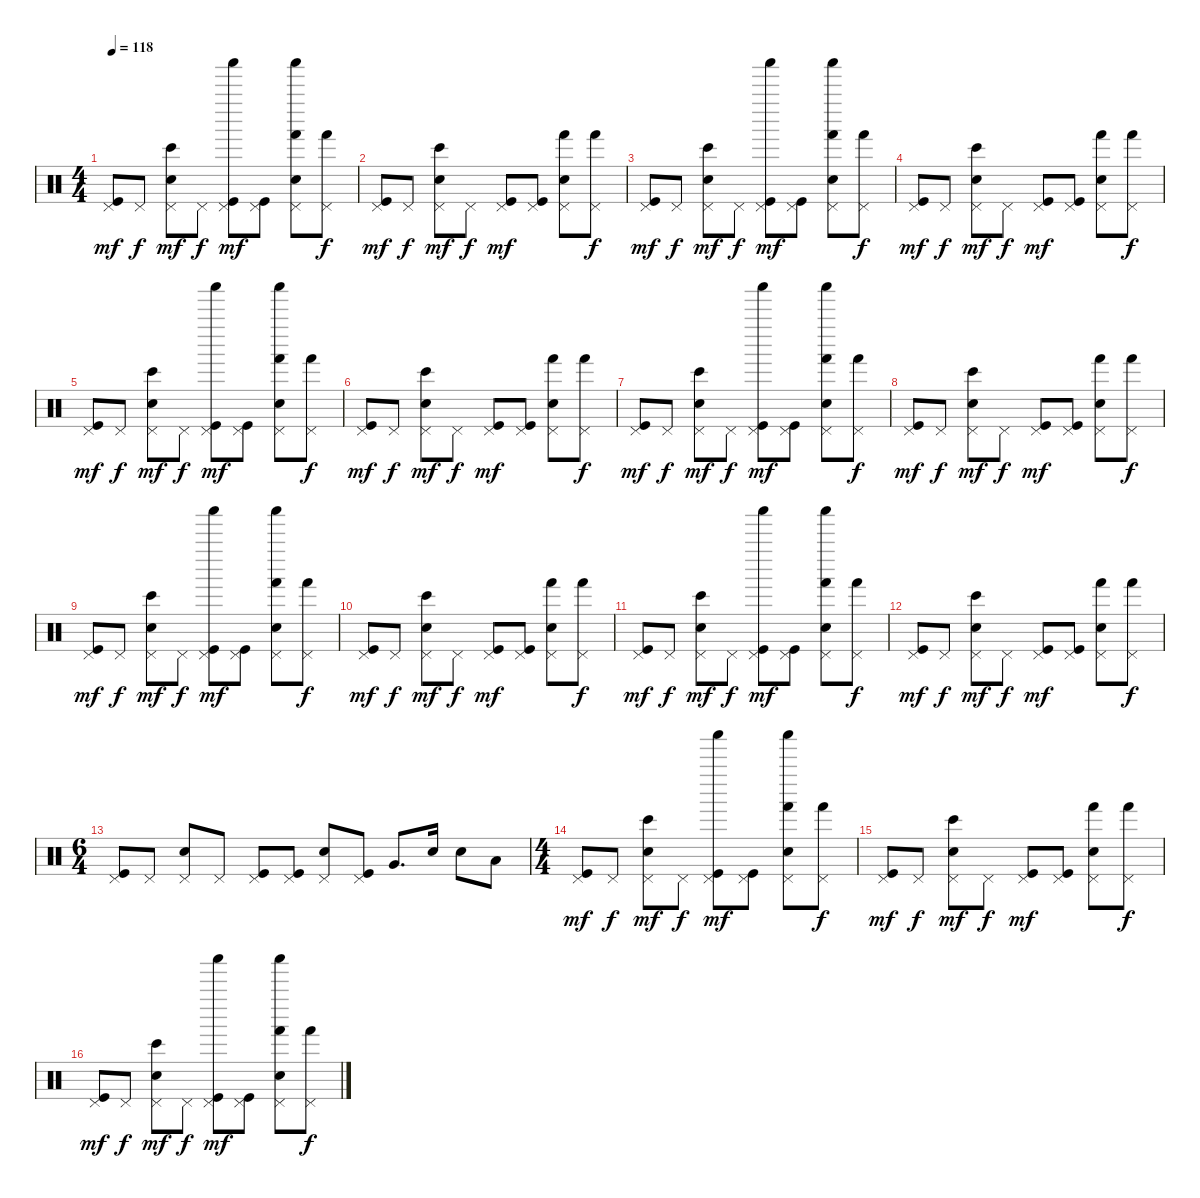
\track "" {instrument percussion}
\staff {score}
\articulation defaults
\ts (4 4)
\tempo 118
\clef neutral
\ks c
("Pedal Hi-Hat (hit)" "Kick (hit)").8{dy mf} "Pedal Hi-Hat (hit)".8{dy f} ("Pedal Hi-Hat (hit)" "Snare (hit) 2" "Bongo High (hit)").8{dy mf} "Pedal Hi-Hat (hit)".8{dy f} ("Pedal Hi-Hat (hit)" "Kick (hit)" "Shaker (hit)").8{dy mf} ("Pedal Hi-Hat (hit)" "Kick (hit)").8 ("Pedal Hi-Hat (hit)" "Snare (hit) 2" "Hand (hit)" "Shaker (hit)").8 ("Pedal Hi-Hat (hit)" "Hand (hit)").8{dy f} |
("Pedal Hi-Hat (hit)" "Kick (hit)").8{dy mf} "Pedal Hi-Hat (hit)".8{dy f} ("Pedal Hi-Hat (hit)" "Snare (hit) 2" "Bongo High (hit)").8{dy mf} "Pedal Hi-Hat (hit)".8{dy f} ("Pedal Hi-Hat (hit)" "Kick (hit)").8{dy mf} ("Pedal Hi-Hat (hit)" "Kick (hit)").8 ("Pedal Hi-Hat (hit)" "Snare (hit) 2" "Hand (hit)").8 ("Pedal Hi-Hat (hit)" "Hand (hit)").8{dy f} |
("Pedal Hi-Hat (hit)" "Kick (hit)").8{dy mf} "Pedal Hi-Hat (hit)".8{dy f} ("Pedal Hi-Hat (hit)" "Snare (hit) 2" "Bongo High (hit)").8{dy mf} "Pedal Hi-Hat (hit)".8{dy f} ("Pedal Hi-Hat (hit)" "Kick (hit)" "Shaker (hit)").8{dy mf} ("Pedal Hi-Hat (hit)" "Kick (hit)").8 ("Pedal Hi-Hat (hit)" "Snare (hit) 2" "Hand (hit)" "Shaker (hit)").8 ("Pedal Hi-Hat (hit)" "Hand (hit)").8{dy f} |
("Pedal Hi-Hat (hit)" "Kick (hit)").8{dy mf} "Pedal Hi-Hat (hit)".8{dy f} ("Pedal Hi-Hat (hit)" "Snare (hit) 2" "Bongo High (hit)").8{dy mf} "Pedal Hi-Hat (hit)".8{dy f} ("Pedal Hi-Hat (hit)" "Kick (hit)").8{dy mf} ("Pedal Hi-Hat (hit)" "Kick (hit)").8 ("Pedal Hi-Hat (hit)" "Snare (hit) 2" "Hand (hit)").8 ("Pedal Hi-Hat (hit)" "Hand (hit)").8{dy f} |
("Pedal Hi-Hat (hit)" "Kick (hit)").8{dy mf} "Pedal Hi-Hat (hit)".8{dy f} ("Pedal Hi-Hat (hit)" "Snare (hit) 2" "Bongo High (hit)").8{dy mf} "Pedal Hi-Hat (hit)".8{dy f} ("Pedal Hi-Hat (hit)" "Kick (hit)" "Shaker (hit)").8{dy mf} ("Pedal Hi-Hat (hit)" "Kick (hit)").8 ("Pedal Hi-Hat (hit)" "Snare (hit) 2" "Hand (hit)" "Shaker (hit)").8 ("Pedal Hi-Hat (hit)" "Hand (hit)").8{dy f} |
("Pedal Hi-Hat (hit)" "Kick (hit)").8{dy mf} "Pedal Hi-Hat (hit)".8{dy f} ("Pedal Hi-Hat (hit)" "Snare (hit) 2" "Bongo High (hit)").8{dy mf} "Pedal Hi-Hat (hit)".8{dy f} ("Pedal Hi-Hat (hit)" "Kick (hit)").8{dy mf} ("Pedal Hi-Hat (hit)" "Kick (hit)").8 ("Pedal Hi-Hat (hit)" "Snare (hit) 2" "Hand (hit)").8 ("Pedal Hi-Hat (hit)" "Hand (hit)").8{dy f} |
("Pedal Hi-Hat (hit)" "Kick (hit)").8{dy mf} "Pedal Hi-Hat (hit)".8{dy f} ("Pedal Hi-Hat (hit)" "Snare (hit) 2" "Bongo High (hit)").8{dy mf} "Pedal Hi-Hat (hit)".8{dy f} ("Pedal Hi-Hat (hit)" "Kick (hit)" "Shaker (hit)").8{dy mf} ("Pedal Hi-Hat (hit)" "Kick (hit)").8 ("Pedal Hi-Hat (hit)" "Snare (hit) 2" "Hand (hit)" "Shaker (hit)").8 ("Pedal Hi-Hat (hit)" "Hand (hit)").8{dy f} |
("Pedal Hi-Hat (hit)" "Kick (hit)").8{dy mf} "Pedal Hi-Hat (hit)".8{dy f} ("Pedal Hi-Hat (hit)" "Snare (hit) 2" "Bongo High (hit)").8{dy mf} "Pedal Hi-Hat (hit)".8{dy f} ("Pedal Hi-Hat (hit)" "Kick (hit)").8{dy mf} ("Pedal Hi-Hat (hit)" "Kick (hit)").8 ("Pedal Hi-Hat (hit)" "Snare (hit) 2" "Hand (hit)").8 ("Pedal Hi-Hat (hit)" "Hand (hit)").8{dy f} |
("Pedal Hi-Hat (hit)" "Kick (hit)").8{dy mf} "Pedal Hi-Hat (hit)".8{dy f} ("Pedal Hi-Hat (hit)" "Snare (hit) 2" "Bongo High (hit)").8{dy mf} "Pedal Hi-Hat (hit)".8{dy f} ("Pedal Hi-Hat (hit)" "Kick (hit)" "Shaker (hit)").8{dy mf} ("Pedal Hi-Hat (hit)" "Kick (hit)").8 ("Pedal Hi-Hat (hit)" "Snare (hit) 2" "Hand (hit)" "Shaker (hit)").8 ("Pedal Hi-Hat (hit)" "Hand (hit)").8{dy f} |
("Pedal Hi-Hat (hit)" "Kick (hit)").8{dy mf} "Pedal Hi-Hat (hit)".8{dy f} ("Pedal Hi-Hat (hit)" "Snare (hit) 2" "Bongo High (hit)").8{dy mf} "Pedal Hi-Hat (hit)".8{dy f} ("Pedal Hi-Hat (hit)" "Kick (hit)").8{dy mf} ("Pedal Hi-Hat (hit)" "Kick (hit)").8 ("Pedal Hi-Hat (hit)" "Snare (hit) 2" "Hand (hit)").8 ("Pedal Hi-Hat (hit)" "Hand (hit)").8{dy f} |
("Pedal Hi-Hat (hit)" "Kick (hit)").8{dy mf} "Pedal Hi-Hat (hit)".8{dy f} ("Pedal Hi-Hat (hit)" "Snare (hit) 2" "Bongo High (hit)").8{dy mf} "Pedal Hi-Hat (hit)".8{dy f} ("Pedal Hi-Hat (hit)" "Kick (hit)" "Shaker (hit)").8{dy mf} ("Pedal Hi-Hat (hit)" "Kick (hit)").8 ("Pedal Hi-Hat (hit)" "Snare (hit) 2" "Hand (hit)" "Shaker (hit)").8 ("Pedal Hi-Hat (hit)" "Hand (hit)").8{dy f} |
("Pedal Hi-Hat (hit)" "Kick (hit)").8{dy mf} "Pedal Hi-Hat (hit)".8{dy f} ("Pedal Hi-Hat (hit)" "Snare (hit) 2" "Bongo High (hit)").8{dy mf} "Pedal Hi-Hat (hit)".8{dy f} ("Pedal Hi-Hat (hit)" "Kick (hit)").8{dy mf} ("Pedal Hi-Hat (hit)" "Kick (hit)").8 ("Pedal Hi-Hat (hit)" "Snare (hit) 2" "Hand (hit)").8 ("Pedal Hi-Hat (hit)" "Hand (hit)").8{dy f} |
\ts (6 4)
("Pedal Hi-Hat (hit)" "Kick (hit)").8 "Pedal Hi-Hat (hit)".8 ("Pedal Hi-Hat (hit)" "Snare (hit) 2").8 "Pedal Hi-Hat (hit)".8 ("Pedal Hi-Hat (hit)" "Kick (hit)").8 ("Pedal Hi-Hat (hit)" "Kick (hit)").8 ("Pedal Hi-Hat (hit)" "Snare (hit) 2").8 ("Pedal Hi-Hat (hit)" "Kick (hit)").8 "Very Low Tom (hit)".8{d} "Snare (hit) 2".16 "Snare (hit) 2".8 "Low Tom (hit)".8 |
\ts (4 4)
("Pedal Hi-Hat (hit)" "Kick (hit)").8{dy mf} "Pedal Hi-Hat (hit)".8{dy f} ("Pedal Hi-Hat (hit)" "Snare (hit) 2" "Bongo High (hit)").8{dy mf} "Pedal Hi-Hat (hit)".8{dy f} ("Pedal Hi-Hat (hit)" "Kick (hit)" "Shaker (hit)").8{dy mf} ("Pedal Hi-Hat (hit)" "Kick (hit)").8 ("Pedal Hi-Hat (hit)" "Snare (hit) 2" "Hand (hit)" "Shaker (hit)").8 ("Pedal Hi-Hat (hit)" "Hand (hit)").8{dy f} |
("Pedal Hi-Hat (hit)" "Kick (hit)").8{dy mf} "Pedal Hi-Hat (hit)".8{dy f} ("Pedal Hi-Hat (hit)" "Snare (hit) 2" "Bongo High (hit)").8{dy mf} "Pedal Hi-Hat (hit)".8{dy f} ("Pedal Hi-Hat (hit)" "Kick (hit)").8{dy mf} ("Pedal Hi-Hat (hit)" "Kick (hit)").8 ("Pedal Hi-Hat (hit)" "Snare (hit) 2" "Hand (hit)").8 ("Pedal Hi-Hat (hit)" "Hand (hit)").8{dy f} |
("Pedal Hi-Hat (hit)" "Kick (hit)").8{dy mf} "Pedal Hi-Hat (hit)".8{dy f} ("Pedal Hi-Hat (hit)" "Snare (hit) 2" "Bongo High (hit)").8{dy mf} "Pedal Hi-Hat (hit)".8{dy f} ("Pedal Hi-Hat (hit)" "Kick (hit)" "Shaker (hit)").8{dy mf} ("Pedal Hi-Hat (hit)" "Kick (hit)").8 ("Pedal Hi-Hat (hit)" "Snare (hit) 2" "Hand (hit)" "Shaker (hit)").8 ("Pedal Hi-Hat (hit)" "Hand (hit)").8{dy f}
